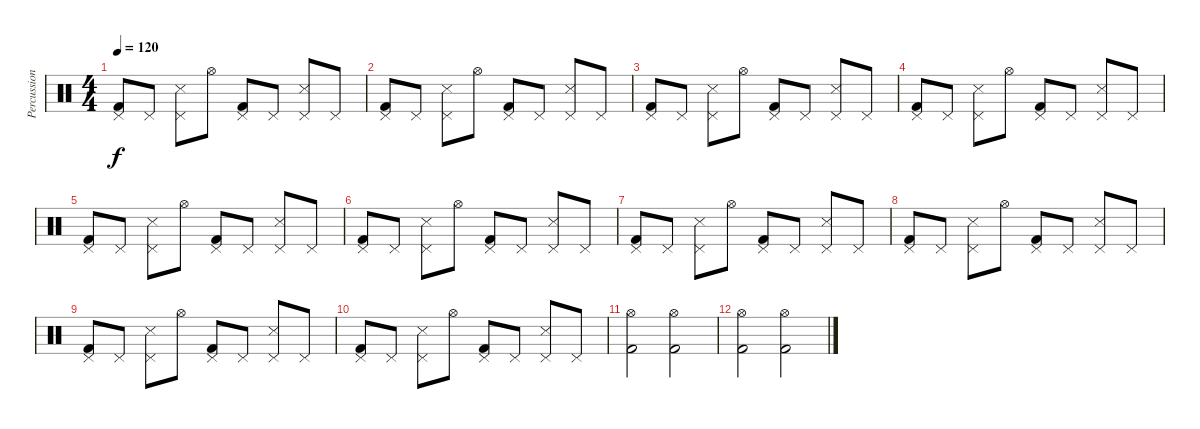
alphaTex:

\track ("Percussion" "Percussion") {instrument percussion}
\staff {score}
\articulation defaults
\ts (4 4)
\tempo 120
\clef neutral
\ks c
("Kick (hit) 2" "Pedal Hi-Hat (hit)").8{dy f} "Pedal Hi-Hat (hit)".8 ("Snare (side stick) 3" "Pedal Hi-Hat (hit)").8 "Hi-Hat (open)".8 ("Kick (hit) 2" "Pedal Hi-Hat (hit)").8 "Pedal Hi-Hat (hit)".8 ("Snare (side stick) 3" "Pedal Hi-Hat (hit)").8 "Pedal Hi-Hat (hit)".8 |
("Kick (hit) 2" "Pedal Hi-Hat (hit)").8 "Pedal Hi-Hat (hit)".8 ("Snare (side stick) 3" "Pedal Hi-Hat (hit)").8 "Hi-Hat (open)".8 ("Kick (hit) 2" "Pedal Hi-Hat (hit)").8 "Pedal Hi-Hat (hit)".8 ("Snare (side stick) 3" "Pedal Hi-Hat (hit)").8 "Pedal Hi-Hat (hit)".8 |
("Kick (hit) 2" "Pedal Hi-Hat (hit)").8 "Pedal Hi-Hat (hit)".8 ("Snare (side stick) 3" "Pedal Hi-Hat (hit)").8 "Hi-Hat (open)".8 ("Kick (hit) 2" "Pedal Hi-Hat (hit)").8 "Pedal Hi-Hat (hit)".8 ("Snare (side stick) 3" "Pedal Hi-Hat (hit)").8 "Pedal Hi-Hat (hit)".8 |
("Kick (hit) 2" "Pedal Hi-Hat (hit)").8 "Pedal Hi-Hat (hit)".8 ("Snare (side stick) 3" "Pedal Hi-Hat (hit)").8 "Hi-Hat (open)".8 ("Kick (hit) 2" "Pedal Hi-Hat (hit)").8 "Pedal Hi-Hat (hit)".8 ("Snare (side stick) 3" "Pedal Hi-Hat (hit)").8 "Pedal Hi-Hat (hit)".8 |
("Kick (hit) 2" "Pedal Hi-Hat (hit)").8 "Pedal Hi-Hat (hit)".8 ("Snare (side stick) 3" "Pedal Hi-Hat (hit)").8 "Hi-Hat (open)".8 ("Kick (hit) 2" "Pedal Hi-Hat (hit)").8 "Pedal Hi-Hat (hit)".8 ("Snare (side stick) 3" "Pedal Hi-Hat (hit)").8 "Pedal Hi-Hat (hit)".8 |
("Kick (hit) 2" "Pedal Hi-Hat (hit)").8 "Pedal Hi-Hat (hit)".8 ("Snare (side stick) 3" "Pedal Hi-Hat (hit)").8 "Hi-Hat (open)".8 ("Kick (hit) 2" "Pedal Hi-Hat (hit)").8 "Pedal Hi-Hat (hit)".8 ("Snare (side stick) 3" "Pedal Hi-Hat (hit)").8 "Pedal Hi-Hat (hit)".8 |
("Kick (hit) 2" "Pedal Hi-Hat (hit)").8 "Pedal Hi-Hat (hit)".8 ("Snare (side stick) 3" "Pedal Hi-Hat (hit)").8 "Hi-Hat (open)".8 ("Kick (hit) 2" "Pedal Hi-Hat (hit)").8 "Pedal Hi-Hat (hit)".8 ("Snare (side stick) 3" "Pedal Hi-Hat (hit)").8 "Pedal Hi-Hat (hit)".8 |
("Kick (hit) 2" "Pedal Hi-Hat (hit)").8 "Pedal Hi-Hat (hit)".8 ("Snare (side stick) 3" "Pedal Hi-Hat (hit)").8 "Hi-Hat (open)".8 ("Kick (hit) 2" "Pedal Hi-Hat (hit)").8 "Pedal Hi-Hat (hit)".8 ("Snare (side stick) 3" "Pedal Hi-Hat (hit)").8 "Pedal Hi-Hat (hit)".8 |
("Kick (hit) 2" "Pedal Hi-Hat (hit)").8 "Pedal Hi-Hat (hit)".8 ("Snare (side stick) 3" "Pedal Hi-Hat (hit)").8 "Hi-Hat (open)".8 ("Kick (hit) 2" "Pedal Hi-Hat (hit)").8 "Pedal Hi-Hat (hit)".8 ("Snare (side stick) 3" "Pedal Hi-Hat (hit)").8 "Pedal Hi-Hat (hit)".8 |
("Kick (hit) 2" "Pedal Hi-Hat (hit)").8 "Pedal Hi-Hat (hit)".8 ("Snare (side stick) 3" "Pedal Hi-Hat (hit)").8 "Hi-Hat (open)".8 ("Kick (hit) 2" "Pedal Hi-Hat (hit)").8 "Pedal Hi-Hat (hit)".8 ("Snare (side stick) 3" "Pedal Hi-Hat (hit)").8 "Pedal Hi-Hat (hit)".8 |
("Kick (hit) 2" "Hi-Hat (open)").2 ("Kick (hit) 2" "Hi-Hat (open)").2 |
("Kick (hit) 2" "Hi-Hat (open)").2 ("Kick (hit) 2" "Hi-Hat (open)").2
